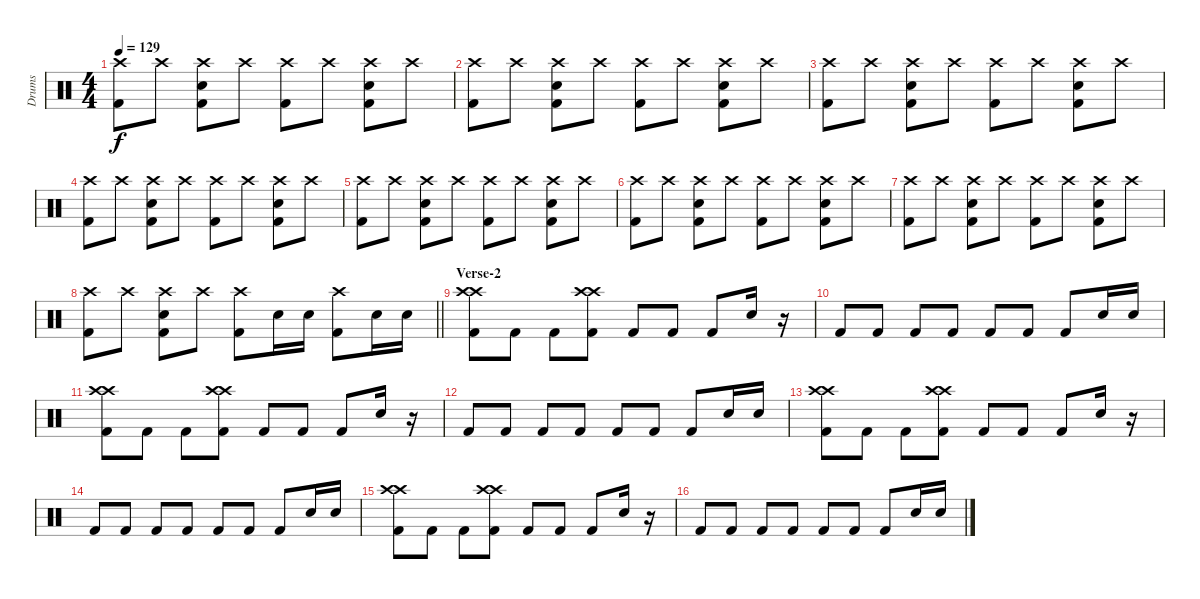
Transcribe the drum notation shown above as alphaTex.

\track ("Drums" "Drums") {instrument percussion}
\staff {score}
\articulation defaults
\ts (4 4)
\tempo 129
\clef neutral
\ks c
("Crash high (hit)" "Kick (hit) 2").8{dy f} "Crash high (hit)".8 ("Crash high (hit)" "Snare (hit) 2" "Kick (hit) 2").8 "Crash high (hit)".8 ("Crash high (hit)" "Kick (hit) 2").8 "Crash high (hit)".8 ("Crash high (hit)" "Snare (hit) 2" "Kick (hit) 2").8 "Crash high (hit)".8 |
("Crash high (hit)" "Kick (hit) 2").8 "Crash high (hit)".8 ("Crash high (hit)" "Snare (hit) 2" "Kick (hit) 2").8 "Crash high (hit)".8 ("Crash high (hit)" "Kick (hit) 2").8 "Crash high (hit)".8 ("Crash high (hit)" "Snare (hit) 2" "Kick (hit) 2").8 "Crash high (hit)".8 |
("Crash high (hit)" "Kick (hit) 2").8 "Crash high (hit)".8 ("Crash high (hit)" "Snare (hit) 2" "Kick (hit) 2").8 "Crash high (hit)".8 ("Crash high (hit)" "Kick (hit) 2").8 "Crash high (hit)".8 ("Crash high (hit)" "Snare (hit) 2" "Kick (hit) 2").8 "Crash high (hit)".8 |
("Crash high (hit)" "Kick (hit) 2").8 "Crash high (hit)".8 ("Crash high (hit)" "Snare (hit) 2" "Kick (hit) 2").8 "Crash high (hit)".8 ("Crash high (hit)" "Kick (hit) 2").8 "Crash high (hit)".8 ("Crash high (hit)" "Snare (hit) 2" "Kick (hit) 2").8 "Crash high (hit)".8 |
("Crash high (hit)" "Kick (hit) 2").8 "Crash high (hit)".8 ("Crash high (hit)" "Snare (hit) 2" "Kick (hit) 2").8 "Crash high (hit)".8 ("Crash high (hit)" "Kick (hit) 2").8 "Crash high (hit)".8 ("Crash high (hit)" "Snare (hit) 2" "Kick (hit) 2").8 "Crash high (hit)".8 |
("Crash high (hit)" "Kick (hit) 2").8 "Crash high (hit)".8 ("Crash high (hit)" "Snare (hit) 2" "Kick (hit) 2").8 "Crash high (hit)".8 ("Crash high (hit)" "Kick (hit) 2").8 "Crash high (hit)".8 ("Crash high (hit)" "Snare (hit) 2" "Kick (hit) 2").8 "Crash high (hit)".8 |
("Crash high (hit)" "Kick (hit) 2").8 "Crash high (hit)".8 ("Crash high (hit)" "Snare (hit) 2" "Kick (hit) 2").8 "Crash high (hit)".8 ("Crash high (hit)" "Kick (hit) 2").8 "Crash high (hit)".8 ("Crash high (hit)" "Snare (hit) 2" "Kick (hit) 2").8 "Crash high (hit)".8 |
\barLineRight lightlight
("Crash high (hit)" "Kick (hit) 2").8 "Crash high (hit)".8 ("Crash high (hit)" "Snare (hit) 2" "Kick (hit) 2").8 "Crash high (hit)".8 ("Crash high (hit)" "Kick (hit) 2").8 "Snare (hit) 2".16 "Snare (hit) 2".16 ("Crash high (hit)" "Kick (hit) 2").8 "Snare (hit) 2".16 "Snare (hit) 2".16 |
\section ("" "Verse-2")
("Crash high (hit)" "Crash high (hit)" "Kick (hit) 2").8 "Kick (hit) 2".8 "Kick (hit) 2".8 ("Crash high (hit)" "Crash high (hit)" "Kick (hit) 2").8 "Kick (hit) 2".8 "Kick (hit) 2".8 "Kick (hit) 2".8 "Snare (hit) 2".16 r.16 |
"Kick (hit) 2".8 "Kick (hit) 2".8 "Kick (hit) 2".8 "Kick (hit) 2".8 "Kick (hit) 2".8 "Kick (hit) 2".8 "Kick (hit) 2".8 "Snare (hit) 2".16 "Snare (hit) 2".16 |
("Crash high (hit)" "Crash high (hit)" "Kick (hit) 2").8 "Kick (hit) 2".8 "Kick (hit) 2".8 ("Crash high (hit)" "Crash high (hit)" "Kick (hit) 2").8 "Kick (hit) 2".8 "Kick (hit) 2".8 "Kick (hit) 2".8 "Snare (hit) 2".16 r.16 |
"Kick (hit) 2".8 "Kick (hit) 2".8 "Kick (hit) 2".8 "Kick (hit) 2".8 "Kick (hit) 2".8 "Kick (hit) 2".8 "Kick (hit) 2".8 "Snare (hit) 2".16 "Snare (hit) 2".16 |
("Crash high (hit)" "Crash high (hit)" "Kick (hit) 2").8 "Kick (hit) 2".8 "Kick (hit) 2".8 ("Crash high (hit)" "Crash high (hit)" "Kick (hit) 2").8 "Kick (hit) 2".8 "Kick (hit) 2".8 "Kick (hit) 2".8 "Snare (hit) 2".16 r.16 |
"Kick (hit) 2".8 "Kick (hit) 2".8 "Kick (hit) 2".8 "Kick (hit) 2".8 "Kick (hit) 2".8 "Kick (hit) 2".8 "Kick (hit) 2".8 "Snare (hit) 2".16 "Snare (hit) 2".16 |
("Crash high (hit)" "Crash high (hit)" "Kick (hit) 2").8 "Kick (hit) 2".8 "Kick (hit) 2".8 ("Crash high (hit)" "Crash high (hit)" "Kick (hit) 2").8 "Kick (hit) 2".8 "Kick (hit) 2".8 "Kick (hit) 2".8 "Snare (hit) 2".16 r.16 |
"Kick (hit) 2".8 "Kick (hit) 2".8 "Kick (hit) 2".8 "Kick (hit) 2".8 "Kick (hit) 2".8 "Kick (hit) 2".8 "Kick (hit) 2".8 "Snare (hit) 2".16 "Snare (hit) 2".16
